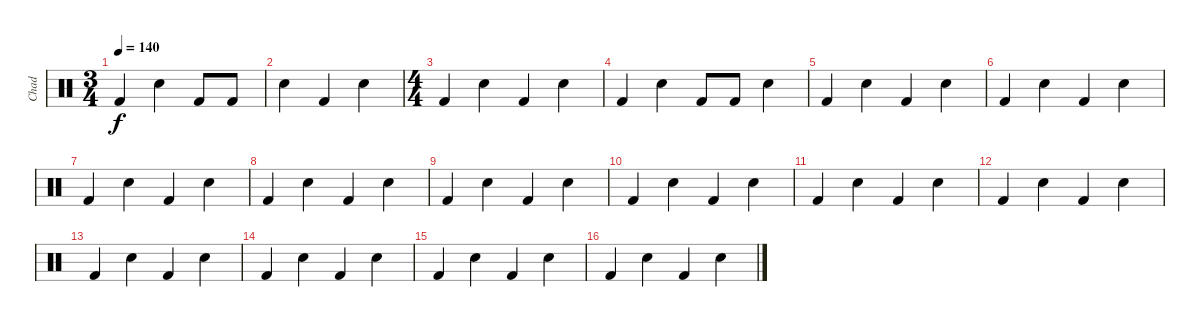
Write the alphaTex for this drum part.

\track ("Chad" "Chad") {instrument percussion}
\staff {score}
\articulation defaults
\ts (3 4)
\tempo 140
\clef neutral
\ks c "Kick (hit) 2".4{dy f} "Electric Snare (hit)".4 "Kick (hit) 2".8 "Kick (hit) 2".8
|
"Electric Snare (hit)".4 "Kick (hit) 2".4 "Electric Snare (hit)".4 |
\ts (4 4)
"Kick (hit) 2".4 "Electric Snare (hit)".4 "Kick (hit) 2".4 "Electric Snare (hit)".4 |
"Kick (hit) 2".4 "Electric Snare (hit)".4 "Kick (hit) 2".8 "Kick (hit) 2".8 "Electric Snare (hit)".4 |
"Kick (hit) 2".4 "Electric Snare (hit)".4 "Kick (hit) 2".4 "Electric Snare (hit)".4 |
"Kick (hit) 2".4 "Electric Snare (hit)".4 "Kick (hit) 2".4 "Electric Snare (hit)".4 |
"Kick (hit) 2".4 "Electric Snare (hit)".4 "Kick (hit) 2".4 "Electric Snare (hit)".4 |
"Kick (hit) 2".4 "Electric Snare (hit)".4 "Kick (hit) 2".4 "Electric Snare (hit)".4 |
"Kick (hit) 2".4 "Electric Snare (hit)".4 "Kick (hit) 2".4 "Electric Snare (hit)".4 |
"Kick (hit) 2".4 "Electric Snare (hit)".4 "Kick (hit) 2".4 "Electric Snare (hit)".4 |
"Kick (hit) 2".4 "Electric Snare (hit)".4 "Kick (hit) 2".4 "Electric Snare (hit)".4 |
"Kick (hit) 2".4 "Electric Snare (hit)".4 "Kick (hit) 2".4 "Electric Snare (hit)".4 |
"Kick (hit) 2".4 "Electric Snare (hit)".4 "Kick (hit) 2".4 "Electric Snare (hit)".4 |
"Kick (hit) 2".4 "Electric Snare (hit)".4 "Kick (hit) 2".4 "Electric Snare (hit)".4 |
"Kick (hit) 2".4 "Electric Snare (hit)".4 "Kick (hit) 2".4 "Electric Snare (hit)".4 |
"Kick (hit) 2".4 "Electric Snare (hit)".4 "Kick (hit) 2".4 "Electric Snare (hit)".4
